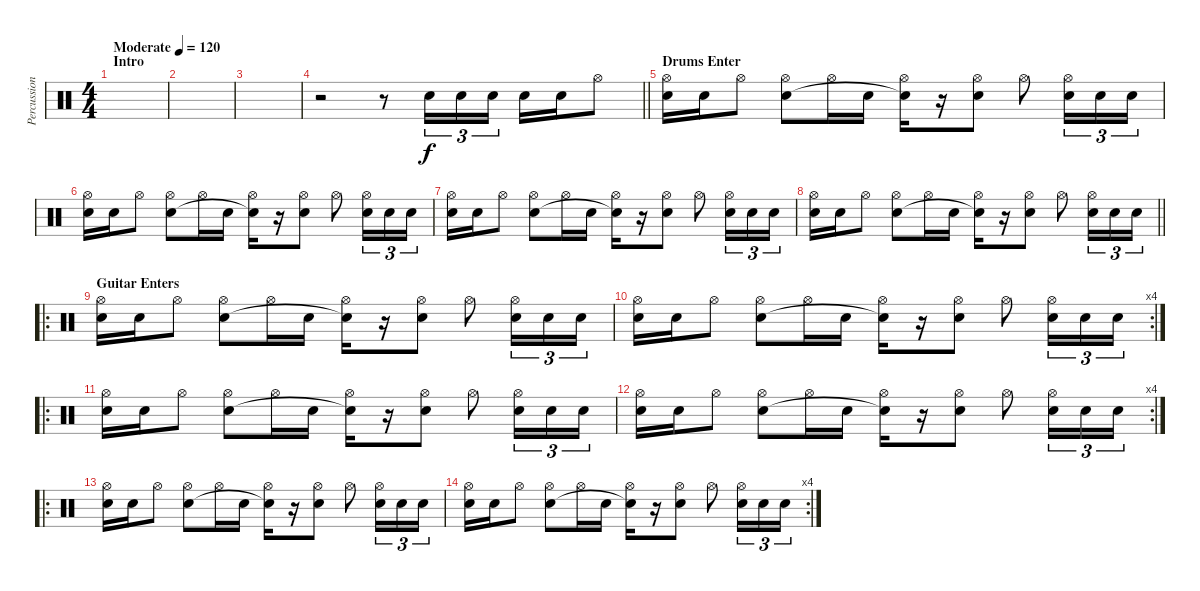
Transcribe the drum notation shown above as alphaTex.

\track ("Percussion" "Percussion") {instrument percussion}
\staff {score}
\articulation defaults
\ts (4 4)
\section ("" "Intro")
\tempo (120 "Moderate")
\tempo 100
\tempo (120 "Moderate")
\clef neutral
\ks c
|
|
|
\barLineRight lightlight
r.2 r.8 "Snare (hit) 2".16{tu (3 2)} "Snare (hit) 2".16{tu (3 2)} "Snare (hit) 2".16{tu (3 2)} "Snare (hit) 2".16 "Snare (hit) 2".16 "Hi-Hat (open)".8 |
\section ("" "Drums Enter")
("Hi-Hat (open)" "Snare (hit) 2").16{volume 5} "Snare (hit) 2".16 "Hi-Hat (open)".8 ("Hi-Hat (open)" "Snare (hit) 2").8 "Hi-Hat (open)".16 "Snare (hit) 2".16 ("Hi-Hat (open)" "Snare (hit)"{t}).16 r.16 ("Hi-Hat (open)" "Snare (hit) 2").8 "Hi-Hat (open)".8 ("Hi-Hat (open)" "Snare (hit) 2").16{tu (3 2)} "Snare (hit) 2".16{tu (3 2)} "Snare (hit) 2".16{tu (3 2)} |
("Hi-Hat (open)" "Snare (hit) 2").16 "Snare (hit) 2".16 "Hi-Hat (open)".8 ("Hi-Hat (open)" "Snare (hit) 2").8 "Hi-Hat (open)".16 "Snare (hit) 2".16 ("Hi-Hat (open)" "Snare (hit)"{t}).16 r.16 ("Hi-Hat (open)" "Snare (hit) 2").8 "Hi-Hat (open)".8 ("Hi-Hat (open)" "Snare (hit) 2").16{tu (3 2)} "Snare (hit) 2".16{tu (3 2)} "Snare (hit) 2".16{tu (3 2)} |
("Hi-Hat (open)" "Snare (hit) 2").16 "Snare (hit) 2".16 "Hi-Hat (open)".8 ("Hi-Hat (open)" "Snare (hit) 2").8 "Hi-Hat (open)".16 "Snare (hit) 2".16 ("Hi-Hat (open)" "Snare (hit)"{t}).16 r.16 ("Hi-Hat (open)" "Snare (hit) 2").8 "Hi-Hat (open)".8 ("Hi-Hat (open)" "Snare (hit) 2").16{tu (3 2)} "Snare (hit) 2".16{tu (3 2)} "Snare (hit) 2".16{tu (3 2)} |
\barLineRight lightlight
("Hi-Hat (open)" "Snare (hit) 2").16 "Snare (hit) 2".16 "Hi-Hat (open)".8 ("Hi-Hat (open)" "Snare (hit) 2").8 "Hi-Hat (open)".16 "Snare (hit) 2".16 ("Hi-Hat (open)" "Snare (hit)"{t}).16 r.16 ("Hi-Hat (open)" "Snare (hit) 2").8 "Hi-Hat (open)".8 ("Hi-Hat (open)" "Snare (hit) 2").16{tu (3 2)} "Snare (hit) 2".16{tu (3 2)} "Snare (hit) 2".16{tu (3 2)} |
\ro
\section ("" "Guitar Enters")
("Hi-Hat (open)" "Snare (hit) 2").16 "Snare (hit) 2".16 "Hi-Hat (open)".8 ("Hi-Hat (open)" "Snare (hit) 2").8 "Hi-Hat (open)".16 "Snare (hit) 2".16 ("Hi-Hat (open)" "Snare (hit)"{t}).16 r.16 ("Hi-Hat (open)" "Snare (hit) 2").8 "Hi-Hat (open)".8 ("Hi-Hat (open)" "Snare (hit) 2").16{tu (3 2)} "Snare (hit) 2".16{tu (3 2)} "Snare (hit) 2".16{tu (3 2)} |
\rc 4
("Hi-Hat (open)" "Snare (hit) 2").16 "Snare (hit) 2".16 "Hi-Hat (open)".8 ("Hi-Hat (open)" "Snare (hit) 2").8 "Hi-Hat (open)".16 "Snare (hit) 2".16 ("Hi-Hat (open)" "Snare (hit)"{t}).16 r.16 ("Hi-Hat (open)" "Snare (hit) 2").8 "Hi-Hat (open)".8 ("Hi-Hat (open)" "Snare (hit) 2").16{tu (3 2)} "Snare (hit) 2".16{tu (3 2)} "Snare (hit) 2".16{tu (3 2)} |
\ro
("Hi-Hat (open)" "Snare (hit) 2").16 "Snare (hit) 2".16 "Hi-Hat (open)".8 ("Hi-Hat (open)" "Snare (hit) 2").8 "Hi-Hat (open)".16 "Snare (hit) 2".16 ("Hi-Hat (open)" "Snare (hit)"{t}).16 r.16 ("Hi-Hat (open)" "Snare (hit) 2").8 "Hi-Hat (open)".8 ("Hi-Hat (open)" "Snare (hit) 2").16{tu (3 2)} "Snare (hit) 2".16{tu (3 2)} "Snare (hit) 2".16{tu (3 2)} |
\rc 4
("Hi-Hat (open)" "Snare (hit) 2").16 "Snare (hit) 2".16 "Hi-Hat (open)".8 ("Hi-Hat (open)" "Snare (hit) 2").8 "Hi-Hat (open)".16 "Snare (hit) 2".16 ("Hi-Hat (open)" "Snare (hit)"{t}).16 r.16 ("Hi-Hat (open)" "Snare (hit) 2").8 "Hi-Hat (open)".8 ("Hi-Hat (open)" "Snare (hit) 2").16{tu (3 2)} "Snare (hit) 2".16{tu (3 2)} "Snare (hit) 2".16{tu (3 2)} |
\ro
("Hi-Hat (open)" "Snare (hit) 2").16 "Snare (hit) 2".16 "Hi-Hat (open)".8 ("Hi-Hat (open)" "Snare (hit) 2").8 "Hi-Hat (open)".16 "Snare (hit) 2".16 ("Hi-Hat (open)" "Snare (hit)"{t}).16 r.16 ("Hi-Hat (open)" "Snare (hit) 2").8 "Hi-Hat (open)".8 ("Hi-Hat (open)" "Snare (hit) 2").16{tu (3 2)} "Snare (hit) 2".16{tu (3 2)} "Snare (hit) 2".16{tu (3 2)} |
\rc 4
("Hi-Hat (open)" "Snare (hit) 2").16 "Snare (hit) 2".16 "Hi-Hat (open)".8 ("Hi-Hat (open)" "Snare (hit) 2").8 "Hi-Hat (open)".16 "Snare (hit) 2".16 ("Hi-Hat (open)" "Snare (hit)"{t}).16 r.16 ("Hi-Hat (open)" "Snare (hit) 2").8 "Hi-Hat (open)".8 ("Hi-Hat (open)" "Snare (hit) 2").16{tu (3 2)} "Snare (hit) 2".16{tu (3 2)} "Snare (hit) 2".16{tu (3 2)}
